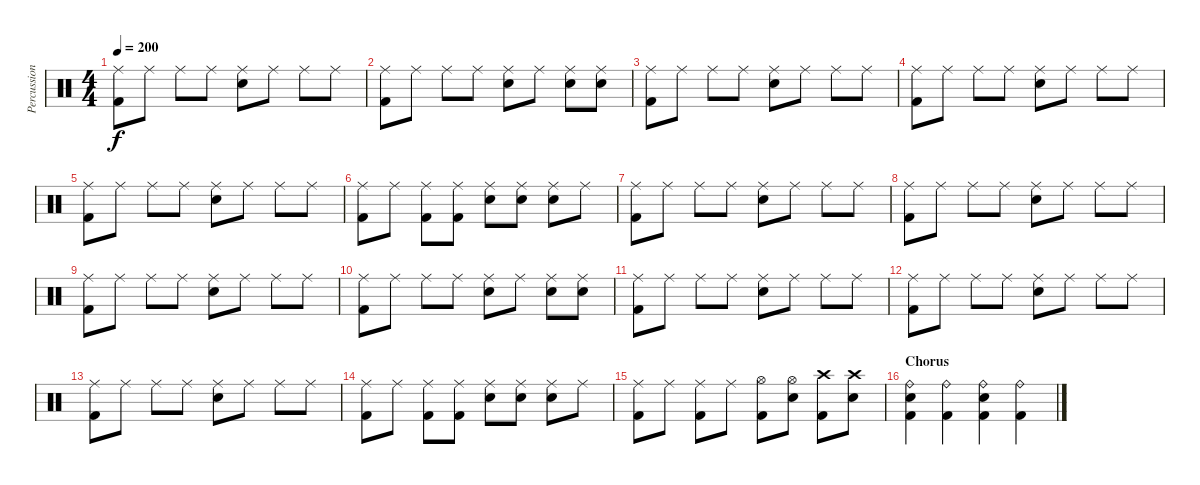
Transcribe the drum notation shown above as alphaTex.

\track ("Percussion" "Percussion") {instrument percussion}
\staff {score}
\articulation defaults
\ts (4 4)
\tempo 200
\clef neutral
\ks c
("Ride (middle)" "Kick (hit) 2").8{dy f} "Ride (middle)".8 "Ride (middle)".8 "Ride (middle)".8 ("Ride (middle)" "Snare (hit) 2").8 "Ride (middle)".8 "Ride (middle)".8 "Ride (middle)".8 |
("Ride (middle)" "Kick (hit) 2").8 "Ride (middle)".8 "Ride (middle)".8 "Ride (middle)".8 ("Ride (middle)" "Snare (hit) 2").8 "Ride (middle)".8 ("Ride (middle)" "Snare (hit) 2").8 ("Ride (middle)" "Snare (hit) 2").8 |
("Ride (middle)" "Kick (hit) 2").8 "Ride (middle)".8 "Ride (middle)".8 "Ride (middle)".8 ("Ride (middle)" "Snare (hit) 2").8 "Ride (middle)".8 "Ride (middle)".8 "Ride (middle)".8 |
("Ride (middle)" "Kick (hit) 2").8 "Ride (middle)".8 "Ride (middle)".8 "Ride (middle)".8 ("Ride (middle)" "Snare (hit) 2").8 "Ride (middle)".8 "Ride (middle)".8 "Ride (middle)".8 |
("Ride (middle)" "Kick (hit) 2").8 "Ride (middle)".8 "Ride (middle)".8 "Ride (middle)".8 ("Ride (middle)" "Snare (hit) 2").8 "Ride (middle)".8 "Ride (middle)".8 "Ride (middle)".8 |
("Ride (middle)" "Kick (hit) 2").8 "Ride (middle)".8 ("Ride (middle)" "Kick (hit) 2").8 ("Ride (middle)" "Kick (hit) 2").8 ("Ride (middle)" "Snare (hit) 2").8 ("Ride (middle)" "Snare (hit) 2").8 ("Ride (middle)" "Snare (hit) 2").8 "Ride (middle)".8 |
("Ride (middle)" "Kick (hit) 2").8 "Ride (middle)".8 "Ride (middle)".8 "Ride (middle)".8 ("Ride (middle)" "Snare (hit) 2").8 "Ride (middle)".8 "Ride (middle)".8 "Ride (middle)".8 |
("Ride (middle)" "Kick (hit) 2").8 "Ride (middle)".8 "Ride (middle)".8 "Ride (middle)".8 ("Ride (middle)" "Snare (hit) 2").8 "Ride (middle)".8 "Ride (middle)".8 "Ride (middle)".8 |
("Ride (middle)" "Kick (hit) 2").8 "Ride (middle)".8 "Ride (middle)".8 "Ride (middle)".8 ("Ride (middle)" "Snare (hit) 2").8 "Ride (middle)".8 "Ride (middle)".8 "Ride (middle)".8 |
("Ride (middle)" "Kick (hit) 2").8 "Ride (middle)".8 "Ride (middle)".8 "Ride (middle)".8 ("Ride (middle)" "Snare (hit) 2").8 "Ride (middle)".8 ("Ride (middle)" "Snare (hit) 2").8 ("Ride (middle)" "Snare (hit) 2").8 |
("Ride (middle)" "Kick (hit) 2").8 "Ride (middle)".8 "Ride (middle)".8 "Ride (middle)".8 ("Ride (middle)" "Snare (hit) 2").8 "Ride (middle)".8 "Ride (middle)".8 "Ride (middle)".8 |
("Ride (middle)" "Kick (hit) 2").8 "Ride (middle)".8 "Ride (middle)".8 "Ride (middle)".8 ("Ride (middle)" "Snare (hit) 2").8 "Ride (middle)".8 "Ride (middle)".8 "Ride (middle)".8 |
("Ride (middle)" "Kick (hit) 2").8 "Ride (middle)".8 "Ride (middle)".8 "Ride (middle)".8 ("Ride (middle)" "Snare (hit) 2").8 "Ride (middle)".8 "Ride (middle)".8 "Ride (middle)".8 |
("Ride (middle)" "Kick (hit) 2").8 "Ride (middle)".8 ("Ride (middle)" "Kick (hit) 2").8 ("Ride (middle)" "Kick (hit) 2").8 ("Ride (middle)" "Snare (hit) 2").8 ("Ride (middle)" "Snare (hit) 2").8 ("Ride (middle)" "Snare (hit) 2").8 "Ride (middle)".8 |
("Ride (middle)" "Kick (hit) 2").8 "Ride (middle)".8 ("Ride (middle)" "Kick (hit) 2").8 "Ride (middle)".8 ("Hi-Hat (open)" "Kick (hit) 2").8 ("Hi-Hat (open)" "Snare (hit) 2").8 ("Crash high (hit)" "Kick (hit) 2").8 ("Crash high (hit)" "Snare (hit) 2").8 |
\section ("" "Chorus")
("Ride (bell)" "Snare (hit) 2" "Kick (hit) 2").4 ("Ride (bell)" "Kick (hit) 2").4 ("Ride (bell)" "Snare (hit) 2" "Kick (hit) 2").4 ("Ride (bell)" "Kick (hit) 2").4
